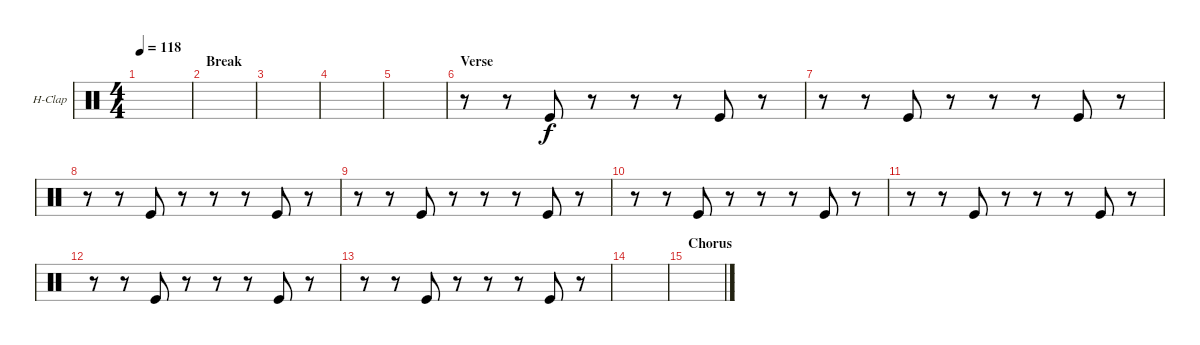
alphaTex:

\defaultSystemsLayout 4
\bracketExtendMode groupsimilarinstruments
\firstSystemTrackNameOrientation horizontal
\otherSystemsTrackNameOrientation horizontal
\track ("Hand Clap" "H-Clap") {instrument percussion}
\staff {score}
\articulation defaults
\ts (4 4)
\tempo 118
\clef neutral
\ks c
|
\section ("" "Break")
|
|
|
|
\section ("" "Verse")
r.8 r.8 "Kick (hit)".8 r.8 r.8 r.8 "Kick (hit)".8 r.8 |
r.8 r.8 "Kick (hit)".8 r.8 r.8 r.8 "Kick (hit)".8 r.8 |
r.8 r.8 "Kick (hit)".8 r.8 r.8 r.8 "Kick (hit)".8 r.8 |
r.8 r.8 "Kick (hit)".8 r.8 r.8 r.8 "Kick (hit)".8 r.8 |
r.8 r.8 "Kick (hit)".8 r.8 r.8 r.8 "Kick (hit)".8 r.8 |
r.8 r.8 "Kick (hit)".8 r.8 r.8 r.8 "Kick (hit)".8 r.8 |
r.8 r.8 "Kick (hit)".8 r.8 r.8 r.8 "Kick (hit)".8 r.8 |
r.8 r.8 "Kick (hit)".8 r.8 r.8 r.8 "Kick (hit)".8 r.8 |
|
\section ("" "Chorus")
